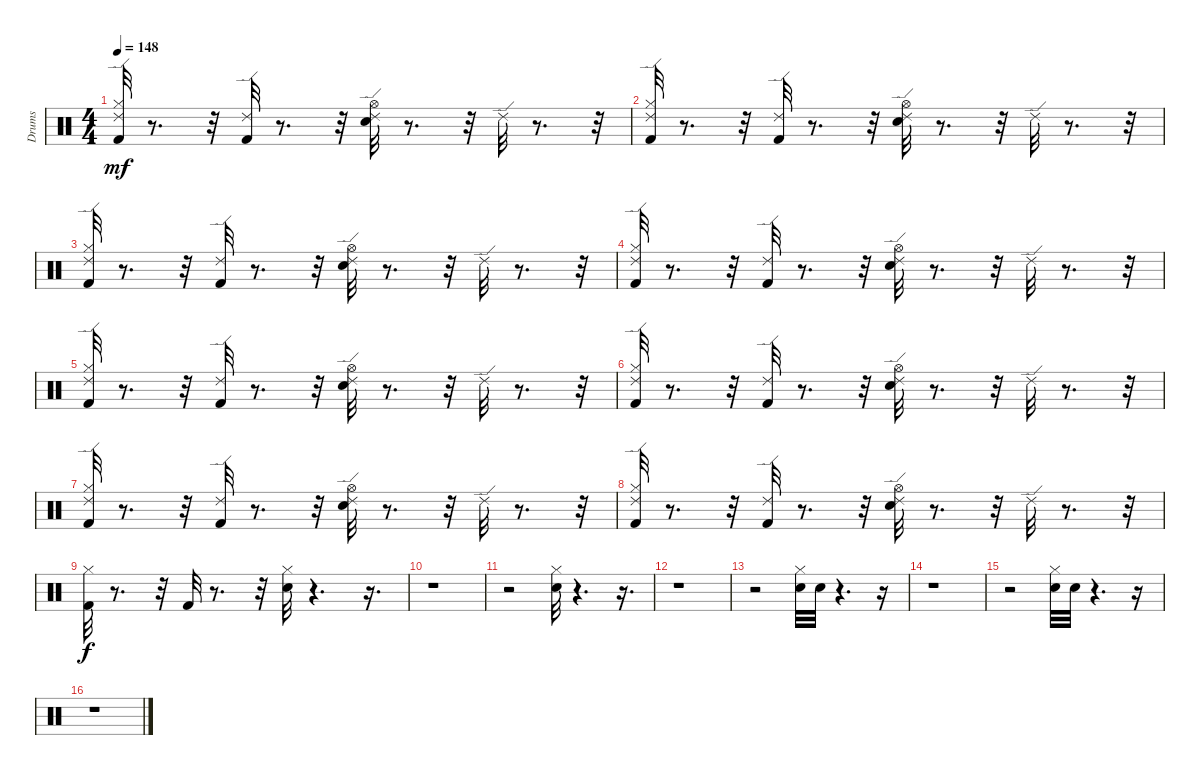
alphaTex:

\track ("Drums" "Drums") {instrument percussion}
\staff {score}
\articulation defaults
\ts (4 4)
\tempo 148
\clef neutral
\ks c
("Ride (edge) 2" "Hi-Hat (closed)" "Kick (hit) 2").32{dy mf} r.8{d} r.32 ("Ride (edge) 2" "Kick (hit) 2").32 r.8{d} r.32 ("Ride (edge) 2" "Hi-Hat (open)" "Electric Snare (hit)").32 r.8{d} r.32 "Ride (edge) 2".32 r.8{d} r.32 |
("Ride (edge) 2" "Kick (hit) 2" "Hi-Hat (closed)").32 r.8{d} r.32 ("Ride (edge) 2" "Kick (hit) 2").32 r.8{d} r.32 ("Hi-Hat (open)" "Ride (edge) 2" "Electric Snare (hit)").32 r.8{d} r.32 "Ride (edge) 2".32 r.8{d} r.32 |
("Ride (edge) 2" "Hi-Hat (closed)" "Kick (hit) 2").32 r.8{d} r.32 ("Ride (edge) 2" "Kick (hit) 2").32 r.8{d} r.32 ("Ride (edge) 2" "Hi-Hat (open)" "Electric Snare (hit)").32 r.8{d} r.32 "Ride (edge) 2".32 r.8{d} r.32 |
("Ride (edge) 2" "Kick (hit) 2" "Hi-Hat (closed)").32 r.8{d} r.32 ("Ride (edge) 2" "Kick (hit) 2").32 r.8{d} r.32 ("Hi-Hat (open)" "Ride (edge) 2" "Electric Snare (hit)").32 r.8{d} r.32 "Ride (edge) 2".32 r.8{d} r.32 |
("Ride (edge) 2" "Hi-Hat (closed)" "Kick (hit) 2").32 r.8{d} r.32 ("Ride (edge) 2" "Kick (hit) 2").32 r.8{d} r.32 ("Ride (edge) 2" "Hi-Hat (open)" "Electric Snare (hit)").32 r.8{d} r.32 "Ride (edge) 2".32 r.8{d} r.32 |
("Ride (edge) 2" "Kick (hit) 2" "Hi-Hat (closed)").32 r.8{d} r.32 ("Ride (edge) 2" "Kick (hit) 2").32 r.8{d} r.32 ("Hi-Hat (open)" "Ride (edge) 2" "Electric Snare (hit)").32 r.8{d} r.32 "Ride (edge) 2".32 r.8{d} r.32 |
("Ride (edge) 2" "Hi-Hat (closed)" "Kick (hit) 2").32 r.8{d} r.32 ("Ride (edge) 2" "Kick (hit) 2").32 r.8{d} r.32 ("Ride (edge) 2" "Hi-Hat (open)" "Electric Snare (hit)").32 r.8{d} r.32 "Ride (edge) 2".32 r.8{d} r.32 |
("Ride (edge) 2" "Kick (hit) 2" "Hi-Hat (closed)").32 r.8{d} r.32 ("Ride (edge) 2" "Kick (hit) 2").32 r.8{d} r.32 ("Hi-Hat (open)" "Ride (edge) 2" "Electric Snare (hit)").32 r.8{d} r.32 "Ride (edge) 2".32 r.8{d} r.32 |
("Hi-Hat (closed)" "Kick (hit) 2").32{dy f} r.8{d} r.32 "Kick (hit) 2".32 r.8{d} r.32 ("Hi-Hat (closed)" "Electric Snare (hit)").32 r.4{d} r.16{d} |
r.1 |
r.2 ("Hi-Hat (closed)" "Electric Snare (hit)").32 r.4{d} r.16{d} |
r.1 |
r.2 ("Hi-Hat (closed)" "Electric Snare (hit)").32 "Electric Snare (hit)".32 r.4{d} r.16 |
r.1 |
r.2 ("Hi-Hat (closed)" "Electric Snare (hit)").32 "Electric Snare (hit)".32 r.4{d} r.16 |
r.1
